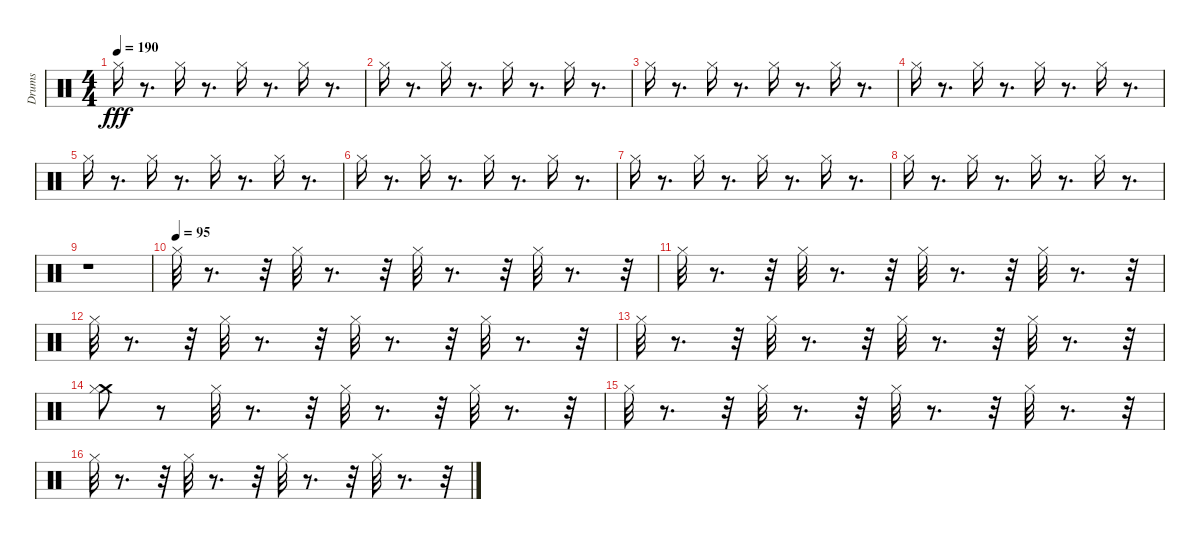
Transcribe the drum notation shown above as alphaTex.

\track ("Drums" "Drums") {instrument percussion}
\staff {score}
\articulation defaults
\ts (4 4)
\tempo 190
\clef neutral
\ks c "Hi-Hat (closed)".16{dy fff}
r.8{d} "Hi-Hat (closed)".16 r.8{d} "Hi-Hat (closed)".16 r.8{d} "Hi-Hat (closed)".16 r.8{d} |
"Hi-Hat (closed)".16 r.8{d} "Hi-Hat (closed)".16 r.8{d} "Hi-Hat (closed)".16 r.8{d} "Hi-Hat (closed)".16 r.8{d} |
"Hi-Hat (closed)".16 r.8{d} "Hi-Hat (closed)".16 r.8{d} "Hi-Hat (closed)".16 r.8{d} "Hi-Hat (closed)".16 r.8{d} |
"Hi-Hat (closed)".16 r.8{d} "Hi-Hat (closed)".16 r.8{d} "Hi-Hat (closed)".16 r.8{d} "Hi-Hat (closed)".16 r.8{d} |
"Hi-Hat (closed)".16 r.8{d} "Hi-Hat (closed)".16 r.8{d} "Hi-Hat (closed)".16 r.8{d} "Hi-Hat (closed)".16 r.8{d} |
"Hi-Hat (closed)".16 r.8{d} "Hi-Hat (closed)".16 r.8{d} "Hi-Hat (closed)".16 r.8{d} "Hi-Hat (closed)".16 r.8{d} |
"Hi-Hat (closed)".16 r.8{d} "Hi-Hat (closed)".16 r.8{d} "Hi-Hat (closed)".16 r.8{d} "Hi-Hat (closed)".16 r.8{d} |
"Hi-Hat (closed)".16 r.8{d} "Hi-Hat (closed)".16 r.8{d} "Hi-Hat (closed)".16 r.8{d} "Hi-Hat (closed)".16 r.8{d} |
r.1 |
\tempo (95)
"Hi-Hat (closed)".32 r.8{d} r.32 "Hi-Hat (closed)".32 r.8{d} r.32 "Hi-Hat (closed)".32 r.8{d} r.32 "Hi-Hat (closed)".32 r.8{d} r.32 |
"Hi-Hat (closed)".32 r.8{d} r.32 "Hi-Hat (closed)".32 r.8{d} r.32 "Hi-Hat (closed)".32 r.8{d} r.32 "Hi-Hat (closed)".32 r.8{d} r.32 |
"Hi-Hat (closed)".32 r.8{d} r.32 "Hi-Hat (closed)".32 r.8{d} r.32 "Hi-Hat (closed)".32 r.8{d} r.32 "Hi-Hat (closed)".32 r.8{d} r.32 |
"Hi-Hat (closed)".32 r.8{d} r.32 "Hi-Hat (closed)".32 r.8{d} r.32 "Hi-Hat (closed)".32 r.8{d} r.32 "Hi-Hat (closed)".32 r.8{d} r.32 |
("Crash medium (hit)" "Hi-Hat (closed)").8 r.8 "Hi-Hat (closed)".32 r.8{d} r.32 "Hi-Hat (closed)".32 r.8{d} r.32 "Hi-Hat (closed)".32 r.8{d} r.32 |
"Hi-Hat (closed)".32 r.8{d} r.32 "Hi-Hat (closed)".32 r.8{d} r.32 "Hi-Hat (closed)".32 r.8{d} r.32 "Hi-Hat (closed)".32 r.8{d} r.32 |
"Hi-Hat (closed)".32 r.8{d} r.32 "Hi-Hat (closed)".32 r.8{d} r.32 "Hi-Hat (closed)".32 r.8{d} r.32 "Hi-Hat (closed)".32 r.8{d} r.32
